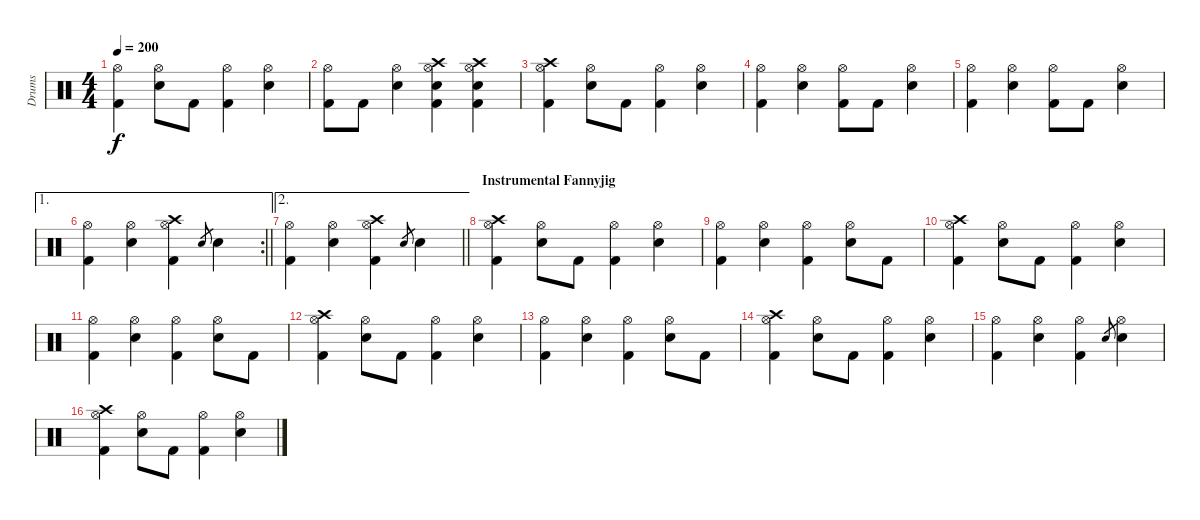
\track ("Drums" "Drums") {instrument percussion}
\staff {score}
\articulation defaults
\ts (4 4)
\tempo 200
\clef neutral
\ks c
("Hi-Hat (open)" "Kick (hit) 2").4{dy f} ("Hi-Hat (open)" "Snare (hit) 2").8 "Kick (hit) 2".8 ("Hi-Hat (open)" "Kick (hit) 2").4 ("Hi-Hat (open)" "Snare (hit) 2").4 |
("Hi-Hat (open)" "Kick (hit) 2").8 "Kick (hit) 2".8 ("Hi-Hat (open)" "Snare (hit) 2").4 ("Crash high (hit)" "Hi-Hat (open)" "Snare (hit) 2" "Kick (hit) 2").4 ("Crash high (hit)" "Hi-Hat (open)" "Snare (hit) 2" "Kick (hit) 2").4 |
("Crash high (hit)" "Hi-Hat (open)" "Kick (hit) 2").4 ("Hi-Hat (open)" "Snare (hit) 2").8 "Kick (hit) 2".8 ("Hi-Hat (open)" "Kick (hit) 2").4 ("Hi-Hat (open)" "Snare (hit) 2").4 |
("Hi-Hat (open)" "Kick (hit) 2").4 ("Hi-Hat (open)" "Snare (hit) 2").4 ("Hi-Hat (open)" "Kick (hit) 2").8 "Kick (hit) 2".8 ("Hi-Hat (open)" "Snare (hit) 2").4 |
("Hi-Hat (open)" "Kick (hit) 2").4 ("Hi-Hat (open)" "Snare (hit) 2").4 ("Hi-Hat (open)" "Kick (hit) 2").8 "Kick (hit) 2".8 ("Hi-Hat (open)" "Snare (hit) 2").4 |
\ae 1
\rc 2
\barLineRight lightlight
("Hi-Hat (open)" "Kick (hit) 2").4 ("Hi-Hat (open)" "Snare (hit) 2").4 ("Crash high (hit)" "Hi-Hat (open)" "Kick (hit) 2").4 "Snare (hit) 2".8{gr} "Snare (hit) 2".4 |
\ae 2
\barLineRight lightlight
("Hi-Hat (open)" "Kick (hit) 2").4 ("Hi-Hat (open)" "Snare (hit) 2").4 ("Crash high (hit)" "Hi-Hat (open)" "Kick (hit) 2").4 "Snare (hit) 2".8{gr} "Snare (hit) 2".4 |
\section ("" "Instrumental Fannyjig")
("Crash high (hit)" "Hi-Hat (open)" "Kick (hit) 2").4 ("Hi-Hat (open)" "Snare (hit) 2").8 "Kick (hit) 2".8 ("Hi-Hat (open)" "Kick (hit) 2").4 ("Hi-Hat (open)" "Snare (hit) 2").4 |
("Hi-Hat (open)" "Kick (hit) 2").4 ("Hi-Hat (open)" "Snare (hit) 2").4 ("Hi-Hat (open)" "Kick (hit) 2").4 ("Hi-Hat (open)" "Snare (hit) 2").8 "Kick (hit) 2".8 |
("Crash high (hit)" "Hi-Hat (open)" "Kick (hit) 2").4 ("Hi-Hat (open)" "Snare (hit) 2").8 "Kick (hit) 2".8 ("Hi-Hat (open)" "Kick (hit) 2").4 ("Hi-Hat (open)" "Snare (hit) 2").4 |
("Hi-Hat (open)" "Kick (hit) 2").4 ("Hi-Hat (open)" "Snare (hit) 2").4 ("Hi-Hat (open)" "Kick (hit) 2").4 ("Hi-Hat (open)" "Snare (hit) 2").8 "Kick (hit) 2".8 |
("Crash high (hit)" "Hi-Hat (open)" "Kick (hit) 2").4 ("Hi-Hat (open)" "Snare (hit) 2").8 "Kick (hit) 2".8 ("Hi-Hat (open)" "Kick (hit) 2").4 ("Hi-Hat (open)" "Snare (hit) 2").4 |
("Hi-Hat (open)" "Kick (hit) 2").4 ("Hi-Hat (open)" "Snare (hit) 2").4 ("Hi-Hat (open)" "Kick (hit) 2").4 ("Hi-Hat (open)" "Snare (hit) 2").8 "Kick (hit) 2".8 |
("Crash high (hit)" "Hi-Hat (open)" "Kick (hit) 2").4 ("Hi-Hat (open)" "Snare (hit) 2").8 "Kick (hit) 2".8 ("Hi-Hat (open)" "Kick (hit) 2").4 ("Hi-Hat (open)" "Snare (hit) 2").4 |
("Hi-Hat (open)" "Kick (hit) 2").4 ("Hi-Hat (open)" "Snare (hit) 2").4 ("Hi-Hat (open)" "Kick (hit) 2").4 "Snare (hit) 2".8{gr} ("Hi-Hat (open)" "Snare (hit) 2").4 |
("Crash high (hit)" "Hi-Hat (open)" "Kick (hit) 2").4 ("Hi-Hat (open)" "Snare (hit) 2").8 "Kick (hit) 2".8 ("Hi-Hat (open)" "Kick (hit) 2").4 ("Hi-Hat (open)" "Snare (hit) 2").4
